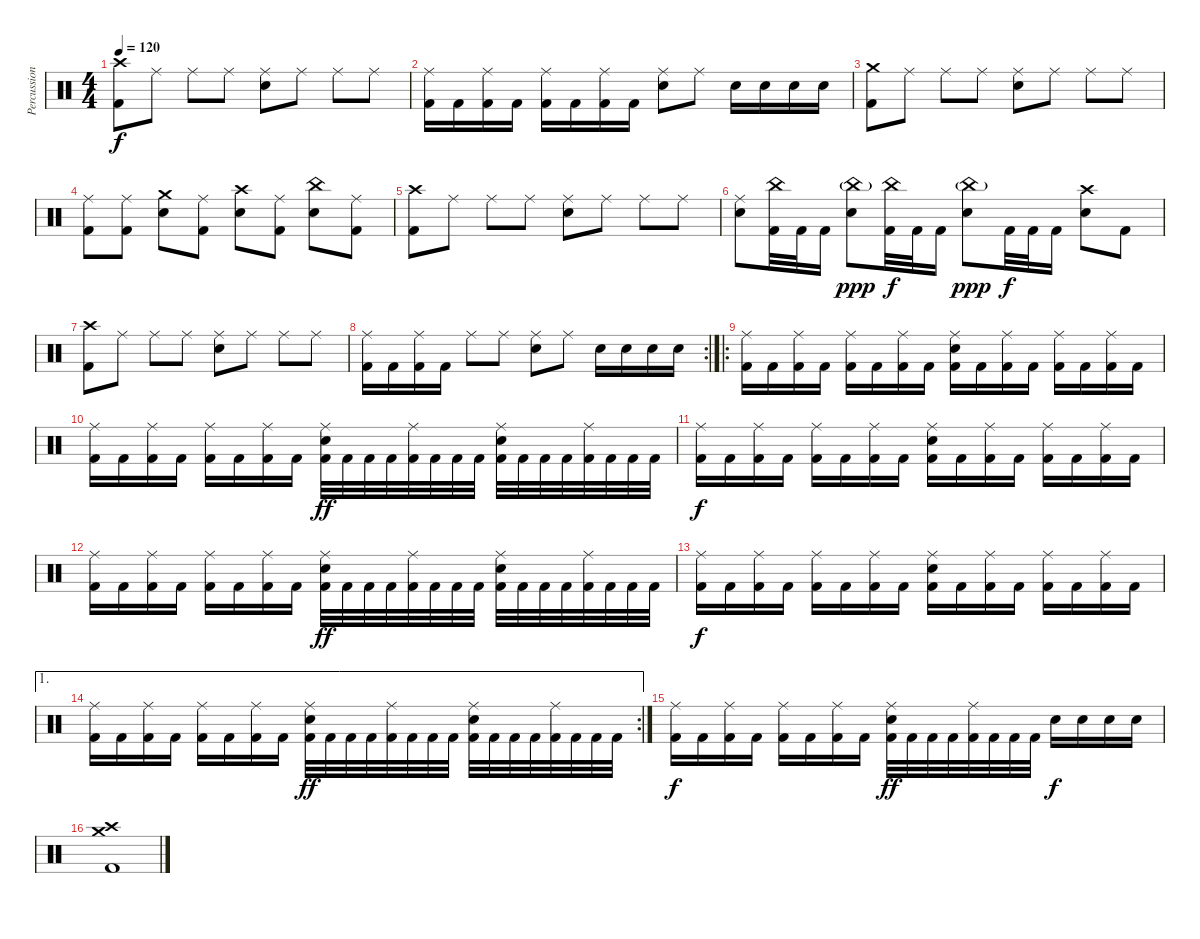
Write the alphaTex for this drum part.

\track ("Percussion" "Percussion") {instrument percussion}
\staff {score}
\articulation defaults
\ts (4 4)
\tempo 120
\clef neutral
\ks c
("Crash high (hit)" "Kick (hit) 2").8{dy f} "Ride (middle)".8 "Ride (middle)".8 "Ride (middle)".8 ("Ride (middle)" "Electric Snare (hit)").8 "Ride (middle)".8 "Ride (middle)".8 "Ride (middle)".8 |
("Ride (middle)" "Kick (hit) 2").16 "Kick (hit) 2".16 ("Ride (middle)" "Kick (hit) 2").16 "Kick (hit) 2".16 ("Ride (middle)" "Kick (hit) 2").16 "Kick (hit) 2".16 ("Ride (middle)" "Kick (hit) 2").16 "Kick (hit) 2".16 ("Ride (middle)" "Electric Snare (hit)").8 "Ride (middle)".8 "Electric Snare (hit)".16 "Electric Snare (hit)".16 "Electric Snare (hit)".16 "Electric Snare (hit)".16 |
("Crash medium (hit)" "Kick (hit) 2").8 "Ride (middle)".8 "Ride (middle)".8 "Ride (middle)".8 ("Ride (middle)" "Electric Snare (hit)").8 "Ride (middle)".8 "Ride (middle)".8 "Ride (middle)".8 |
("Ride (middle)" "Kick (hit) 2").8 ("Ride (middle)" "Kick (hit) 2").8 ("Crash medium (hit)" "Electric Snare (hit)").8 ("Ride (middle)" "Kick (hit) 2").8 ("Crash high (hit)" "Electric Snare (hit)").8 ("Ride (middle)" "Kick (hit) 2").8 ("China (hit)" "Electric Snare (hit)").8 ("Ride (middle)" "Kick (hit) 2").8 |
("Crash high (hit)" "Kick (hit) 2").8 "Ride (middle)".8 "Ride (middle)".8 "Ride (middle)".8 ("Ride (middle)" "Electric Snare (hit)").8 "Ride (middle)".8 "Ride (middle)".8 "Ride (middle)".8 |
("Ride (middle)" "Electric Snare (hit)").8 ("China (hit)" "Kick (hit) 2").32 "Kick (hit) 2".32 "Kick (hit) 2".16 ("China (hit)"{g} "Electric Snare (hit)").8{dy ppp} ("China (hit)" "Kick (hit) 2").32{dy f} "Kick (hit) 2".32 "Kick (hit) 2".16 ("China (hit)"{g} "Electric Snare (hit)").8{dy ppp} "Kick (hit) 2".32{dy f} "Kick (hit) 2".32 "Kick (hit) 2".16 ("Crash high (hit)" "Electric Snare (hit)").8 "Kick (hit) 2".8 |
("Crash high (hit)" "Kick (hit) 2").8 "Ride (middle)".8 "Ride (middle)".8 "Ride (middle)".8 ("Ride (middle)" "Electric Snare (hit)").8 "Ride (middle)".8 "Ride (middle)".8 "Ride (middle)".8 |
\rc 2
("Ride (middle)" "Kick (hit) 2").16 "Kick (hit) 2".16 ("Ride (middle)" "Kick (hit) 2").16 "Kick (hit) 2".16 "Ride (middle)".8 "Ride (middle)".8 ("Ride (middle)" "Electric Snare (hit)").8 "Ride (middle)".8 "Electric Snare (hit)".16 "Electric Snare (hit)".16 "Electric Snare (hit)".16 "Electric Snare (hit)".16 |
\ro
("Ride (middle)" "Kick (hit) 2").16 "Kick (hit) 2".16 ("Ride (middle)" "Kick (hit) 2").16 "Kick (hit) 2".16 ("Ride (middle)" "Kick (hit) 2").16 "Kick (hit) 2".16 ("Ride (middle)" "Kick (hit) 2").16 "Kick (hit) 2".16 ("Ride (middle)" "Electric Snare (hit)" "Kick (hit) 2").16 "Kick (hit) 2".16 ("Ride (middle)" "Kick (hit) 2").16 "Kick (hit) 2".16 ("Ride (middle)" "Kick (hit) 2").16 "Kick (hit) 2".16 ("Ride (middle)" "Kick (hit) 2").16 "Kick (hit) 2".16 |
("Ride (middle)" "Kick (hit) 2").16 "Kick (hit) 2".16 ("Ride (middle)" "Kick (hit) 2").16 "Kick (hit) 2".16 ("Ride (middle)" "Kick (hit) 2").16 "Kick (hit) 2".16 ("Ride (middle)" "Kick (hit) 2").16 "Kick (hit) 2".16 ("Ride (middle)" "Electric Snare (hit)" "Kick (hit) 2").32{dy ff} "Kick (hit) 2".32 "Kick (hit) 2".32 "Kick (hit) 2".32 ("Ride (middle)" "Kick (hit) 2").32 "Kick (hit) 2".32 "Kick (hit) 2".32 "Kick (hit) 2".32 ("Ride (middle)" "Electric Snare (hit)" "Kick (hit) 2").32 "Kick (hit) 2".32 "Kick (hit) 2".32 "Kick (hit) 2".32 ("Ride (middle)" "Kick (hit) 2").32 "Kick (hit) 2".32 "Kick (hit) 2".32 "Kick (hit) 2".32 |
("Ride (middle)" "Kick (hit) 2").16{dy f} "Kick (hit) 2".16 ("Ride (middle)" "Kick (hit) 2").16 "Kick (hit) 2".16 ("Ride (middle)" "Kick (hit) 2").16 "Kick (hit) 2".16 ("Ride (middle)" "Kick (hit) 2").16 "Kick (hit) 2".16 ("Ride (middle)" "Electric Snare (hit)" "Kick (hit) 2").16 "Kick (hit) 2".16 ("Ride (middle)" "Kick (hit) 2").16 "Kick (hit) 2".16 ("Ride (middle)" "Kick (hit) 2").16 "Kick (hit) 2".16 ("Ride (middle)" "Kick (hit) 2").16 "Kick (hit) 2".16 |
("Ride (middle)" "Kick (hit) 2").16 "Kick (hit) 2".16 ("Ride (middle)" "Kick (hit) 2").16 "Kick (hit) 2".16 ("Ride (middle)" "Kick (hit) 2").16 "Kick (hit) 2".16 ("Ride (middle)" "Kick (hit) 2").16 "Kick (hit) 2".16 ("Ride (middle)" "Electric Snare (hit)" "Kick (hit) 2").32{dy ff} "Kick (hit) 2".32 "Kick (hit) 2".32 "Kick (hit) 2".32 ("Ride (middle)" "Kick (hit) 2").32 "Kick (hit) 2".32 "Kick (hit) 2".32 "Kick (hit) 2".32 ("Ride (middle)" "Electric Snare (hit)" "Kick (hit) 2").32 "Kick (hit) 2".32 "Kick (hit) 2".32 "Kick (hit) 2".32 ("Ride (middle)" "Kick (hit) 2").32 "Kick (hit) 2".32 "Kick (hit) 2".32 "Kick (hit) 2".32 |
("Ride (middle)" "Kick (hit) 2").16{dy f} "Kick (hit) 2".16 ("Ride (middle)" "Kick (hit) 2").16 "Kick (hit) 2".16 ("Ride (middle)" "Kick (hit) 2").16 "Kick (hit) 2".16 ("Ride (middle)" "Kick (hit) 2").16 "Kick (hit) 2".16 ("Ride (middle)" "Electric Snare (hit)" "Kick (hit) 2").16 "Kick (hit) 2".16 ("Ride (middle)" "Kick (hit) 2").16 "Kick (hit) 2".16 ("Ride (middle)" "Kick (hit) 2").16 "Kick (hit) 2".16 ("Ride (middle)" "Kick (hit) 2").16 "Kick (hit) 2".16 |
\ae 1
\rc 2
("Ride (middle)" "Kick (hit) 2").16 "Kick (hit) 2".16 ("Ride (middle)" "Kick (hit) 2").16 "Kick (hit) 2".16 ("Ride (middle)" "Kick (hit) 2").16 "Kick (hit) 2".16 ("Ride (middle)" "Kick (hit) 2").16 "Kick (hit) 2".16 ("Ride (middle)" "Electric Snare (hit)" "Kick (hit) 2").32{dy ff} "Kick (hit) 2".32 "Kick (hit) 2".32 "Kick (hit) 2".32 ("Ride (middle)" "Kick (hit) 2").32 "Kick (hit) 2".32 "Kick (hit) 2".32 "Kick (hit) 2".32 ("Ride (middle)" "Electric Snare (hit)" "Kick (hit) 2").32 "Kick (hit) 2".32 "Kick (hit) 2".32 "Kick (hit) 2".32 ("Ride (middle)" "Kick (hit) 2").32 "Kick (hit) 2".32 "Kick (hit) 2".32 "Kick (hit) 2".32 |
("Ride (middle)" "Kick (hit) 2").16{dy f} "Kick (hit) 2".16 ("Ride (middle)" "Kick (hit) 2").16 "Kick (hit) 2".16 ("Ride (middle)" "Kick (hit) 2").16 "Kick (hit) 2".16 ("Ride (middle)" "Kick (hit) 2").16 "Kick (hit) 2".16 ("Ride (middle)" "Electric Snare (hit)" "Kick (hit) 2").32{dy ff} "Kick (hit) 2".32 "Kick (hit) 2".32 "Kick (hit) 2".32 ("Ride (middle)" "Kick (hit) 2").32 "Kick (hit) 2".32 "Kick (hit) 2".32 "Kick (hit) 2".32 "Electric Snare (hit)".16{dy f} "Electric Snare (hit)".16 "Electric Snare (hit)".16 "Electric Snare (hit)".16 |
("Crash high (hit)" "Crash medium (hit)" "Kick (hit) 2").1
